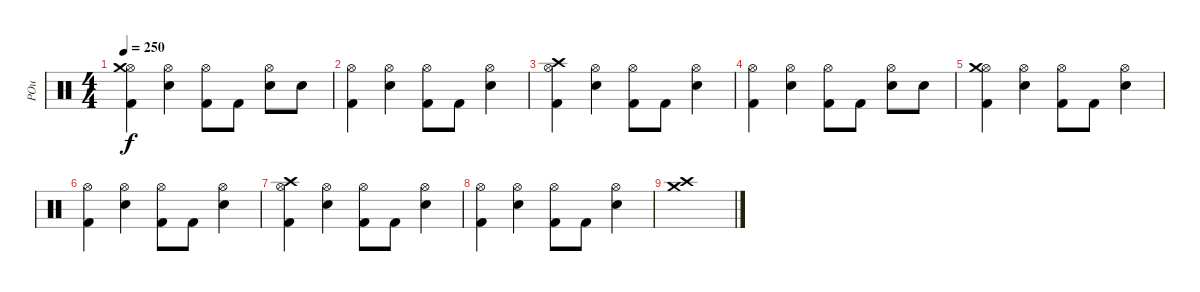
\track ("POu" "POu") {instrument percussion}
\staff {score}
\articulation defaults
\ts (4 4)
\tempo 250
\clef neutral
\ks c
("Kick (hit) 2" "Hi-Hat (open)" "Crash medium (hit)").4{dy f} ("Electric Snare (hit)" "Hi-Hat (open)").4 ("Kick (hit) 2" "Hi-Hat (open)").8 "Kick (hit) 2".8 ("Electric Snare (hit)" "Hi-Hat (open)").8 "Electric Snare (hit)".8 |
("Kick (hit) 2" "Hi-Hat (open)").4 ("Electric Snare (hit)" "Hi-Hat (open)").4 ("Kick (hit) 2" "Hi-Hat (open)").8 "Kick (hit) 2".8 ("Electric Snare (hit)" "Hi-Hat (open)").4 |
("Kick (hit) 2" "Hi-Hat (open)" "Crash high (hit)").4 ("Electric Snare (hit)" "Hi-Hat (open)").4 ("Kick (hit) 2" "Hi-Hat (open)").8 "Kick (hit) 2".8 ("Electric Snare (hit)" "Hi-Hat (open)").4 |
("Kick (hit) 2" "Hi-Hat (open)").4 ("Electric Snare (hit)" "Hi-Hat (open)").4 ("Kick (hit) 2" "Hi-Hat (open)").8 "Kick (hit) 2".8 ("Electric Snare (hit)" "Hi-Hat (open)").8 "Electric Snare (hit)".8 |
("Kick (hit) 2" "Hi-Hat (open)" "Crash medium (hit)").4 ("Electric Snare (hit)" "Hi-Hat (open)").4 ("Kick (hit) 2" "Hi-Hat (open)").8 "Kick (hit) 2".8 ("Electric Snare (hit)" "Hi-Hat (open)").4 |
("Kick (hit) 2" "Hi-Hat (open)").4 ("Electric Snare (hit)" "Hi-Hat (open)").4 ("Kick (hit) 2" "Hi-Hat (open)").8 "Kick (hit) 2".8 ("Electric Snare (hit)" "Hi-Hat (open)").4 |
("Kick (hit) 2" "Hi-Hat (open)" "Crash high (hit)").4 ("Electric Snare (hit)" "Hi-Hat (open)").4 ("Kick (hit) 2" "Hi-Hat (open)").8 "Kick (hit) 2".8 ("Electric Snare (hit)" "Hi-Hat (open)").4 |
("Kick (hit) 2" "Hi-Hat (open)").4 ("Electric Snare (hit)" "Hi-Hat (open)").4 ("Kick (hit) 2" "Hi-Hat (open)").8 "Kick (hit) 2".8 ("Electric Snare (hit)" "Hi-Hat (open)").4 |
("Crash high (hit)" "Crash medium (hit)").1
